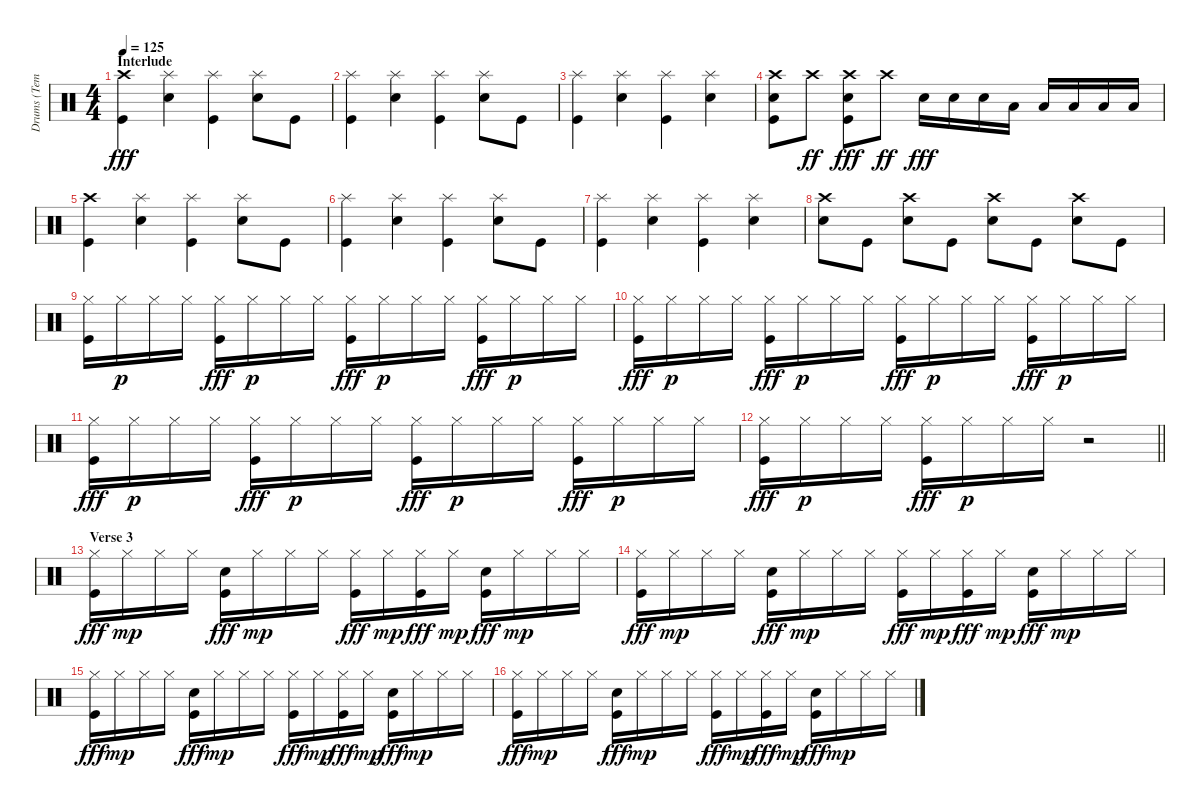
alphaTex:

\track ("Drums (Tempesta)" "Drums (Tem") {instrument percussion}
\staff {score}
\articulation defaults
\ts (4 4)
\section ("" "Interlude")
\tempo 125
\clef neutral
\ks c
("Crash high (hit)" "Kick (hit)").4{dy fff} ("Splash (hit)" "Electric Snare (hit)").4 ("Splash (hit)" "Kick (hit)").4 ("Splash (hit)" "Electric Snare (hit)").8 "Kick (hit)".8 |
("Splash (hit)" "Kick (hit)").4 ("Splash (hit)" "Electric Snare (hit)").4 ("Splash (hit)" "Kick (hit)").4 ("Splash (hit)" "Electric Snare (hit)").8 "Kick (hit)".8 |
("Splash (hit)" "Kick (hit)").4 ("Splash (hit)" "Electric Snare (hit)").4 ("Splash (hit)" "Kick (hit)").4 ("Splash (hit)" "Electric Snare (hit)").4 |
("Crash high (hit)" "Electric Snare (hit)" "Kick (hit)").8 "Crash high (hit)".8{dy ff} ("Crash high (hit)" "Electric Snare (hit)" "Kick (hit)").8{dy fff} "Crash high (hit)".8{dy ff} "Electric Snare (hit)".16{dy fff} "Electric Snare (hit)".16 "Electric Snare (hit)".16 "Low Tom (hit)".16 "Low Tom (hit)".16 "Low Tom (hit)".16 "Low Floor Tom (hit)".16 "Low Floor Tom (hit)".16 |
("Crash high (hit)" "Kick (hit)").4 ("Splash (hit)" "Electric Snare (hit)").4 ("Splash (hit)" "Kick (hit)").4 ("Splash (hit)" "Electric Snare (hit)").8 "Kick (hit)".8 |
("Splash (hit)" "Kick (hit)").4 ("Splash (hit)" "Electric Snare (hit)").4 ("Splash (hit)" "Kick (hit)").4 ("Splash (hit)" "Electric Snare (hit)").8 "Kick (hit)".8 |
("Splash (hit)" "Kick (hit)").4 ("Splash (hit)" "Electric Snare (hit)").4 ("Splash (hit)" "Kick (hit)").4 ("Splash (hit)" "Electric Snare (hit)").4 |
("Crash high (hit)" "Electric Snare (hit)").8 "Kick (hit)".8 ("Crash high (hit)" "Electric Snare (hit)").8 "Kick (hit)".8 ("Crash high (hit)" "Electric Snare (hit)").8 "Kick (hit)".8 ("Crash high (hit)" "Electric Snare (hit)").8 "Kick (hit)".8 |
("Hi-Hat (closed)" "Kick (hit)").16 "Hi-Hat (closed)".16{dy p} "Hi-Hat (closed)".16 "Hi-Hat (closed)".16 ("Hi-Hat (closed)" "Kick (hit)").16{dy fff} "Hi-Hat (closed)".16{dy p} "Hi-Hat (closed)".16 "Hi-Hat (closed)".16 ("Hi-Hat (closed)" "Kick (hit)").16{dy fff} "Hi-Hat (closed)".16{dy p} "Hi-Hat (closed)".16 "Hi-Hat (closed)".16 ("Hi-Hat (closed)" "Kick (hit)").16{dy fff} "Hi-Hat (closed)".16{dy p} "Hi-Hat (closed)".16 "Hi-Hat (closed)".16 |
("Hi-Hat (closed)" "Kick (hit)").16{dy fff} "Hi-Hat (closed)".16{dy p} "Hi-Hat (closed)".16 "Hi-Hat (closed)".16 ("Hi-Hat (closed)" "Kick (hit)").16{dy fff} "Hi-Hat (closed)".16{dy p} "Hi-Hat (closed)".16 "Hi-Hat (closed)".16 ("Hi-Hat (closed)" "Kick (hit)").16{dy fff} "Hi-Hat (closed)".16{dy p} "Hi-Hat (closed)".16 "Hi-Hat (closed)".16 ("Hi-Hat (closed)" "Kick (hit)").16{dy fff} "Hi-Hat (closed)".16{dy p} "Hi-Hat (closed)".16 "Hi-Hat (closed)".16 |
("Hi-Hat (closed)" "Kick (hit)").16{dy fff} "Hi-Hat (closed)".16{dy p} "Hi-Hat (closed)".16 "Hi-Hat (closed)".16 ("Hi-Hat (closed)" "Kick (hit)").16{dy fff} "Hi-Hat (closed)".16{dy p} "Hi-Hat (closed)".16 "Hi-Hat (closed)".16 ("Hi-Hat (closed)" "Kick (hit)").16{dy fff} "Hi-Hat (closed)".16{dy p} "Hi-Hat (closed)".16 "Hi-Hat (closed)".16 ("Hi-Hat (closed)" "Kick (hit)").16{dy fff} "Hi-Hat (closed)".16{dy p} "Hi-Hat (closed)".16 "Hi-Hat (closed)".16 |
\barLineRight lightlight
("Hi-Hat (closed)" "Kick (hit)").16{dy fff} "Hi-Hat (closed)".16{dy p} "Hi-Hat (closed)".16 "Hi-Hat (closed)".16 ("Hi-Hat (closed)" "Kick (hit)").16{dy fff} "Hi-Hat (closed)".16{dy p} "Hi-Hat (closed)".16 "Hi-Hat (closed)".16 r.2 |
\section ("" "Verse 3")
("Hi-Hat (closed)" "Kick (hit)").16{dy fff} "Hi-Hat (closed)".16{dy mp} "Hi-Hat (closed)".16 "Hi-Hat (closed)".16 ("Electric Snare (hit)" "Kick (hit)").16{dy fff} "Hi-Hat (closed)".16{dy mp} "Hi-Hat (closed)".16 "Hi-Hat (closed)".16 ("Hi-Hat (closed)" "Kick (hit)").16{dy fff} "Hi-Hat (closed)".16{dy mp} ("Hi-Hat (closed)" "Kick (hit)").16{dy fff} "Hi-Hat (closed)".16{dy mp} ("Electric Snare (hit)" "Kick (hit)").16{dy fff} "Hi-Hat (closed)".16{dy mp} "Hi-Hat (closed)".16 "Hi-Hat (closed)".16 |
("Hi-Hat (closed)" "Kick (hit)").16{dy fff} "Hi-Hat (closed)".16{dy mp} "Hi-Hat (closed)".16 "Hi-Hat (closed)".16 ("Electric Snare (hit)" "Kick (hit)").16{dy fff} "Hi-Hat (closed)".16{dy mp} "Hi-Hat (closed)".16 "Hi-Hat (closed)".16 ("Hi-Hat (closed)" "Kick (hit)").16{dy fff} "Hi-Hat (closed)".16{dy mp} ("Hi-Hat (closed)" "Kick (hit)").16{dy fff} "Hi-Hat (closed)".16{dy mp} ("Electric Snare (hit)" "Kick (hit)").16{dy fff} "Hi-Hat (closed)".16{dy mp} "Hi-Hat (closed)".16 "Hi-Hat (closed)".16 |
("Hi-Hat (closed)" "Kick (hit)").16{dy fff} "Hi-Hat (closed)".16{dy mp} "Hi-Hat (closed)".16 "Hi-Hat (closed)".16 ("Electric Snare (hit)" "Kick (hit)").16{dy fff} "Hi-Hat (closed)".16{dy mp} "Hi-Hat (closed)".16 "Hi-Hat (closed)".16 ("Hi-Hat (closed)" "Kick (hit)").16{dy fff} "Hi-Hat (closed)".16{dy mp} ("Hi-Hat (closed)" "Kick (hit)").16{dy fff} "Hi-Hat (closed)".16{dy mp} ("Electric Snare (hit)" "Kick (hit)").16{dy fff} "Hi-Hat (closed)".16{dy mp} "Hi-Hat (closed)".16 "Hi-Hat (closed)".16 |
("Hi-Hat (closed)" "Kick (hit)").16{dy fff} "Hi-Hat (closed)".16{dy mp} "Hi-Hat (closed)".16 "Hi-Hat (closed)".16 ("Electric Snare (hit)" "Kick (hit)").16{dy fff} "Hi-Hat (closed)".16{dy mp} "Hi-Hat (closed)".16 "Hi-Hat (closed)".16 ("Hi-Hat (closed)" "Kick (hit)").16{dy fff} "Hi-Hat (closed)".16{dy mp} ("Hi-Hat (closed)" "Kick (hit)").16{dy fff} "Hi-Hat (closed)".16{dy mp} ("Electric Snare (hit)" "Kick (hit)").16{dy fff} "Hi-Hat (closed)".16{dy mp} "Hi-Hat (closed)".16 "Hi-Hat (closed)".16
